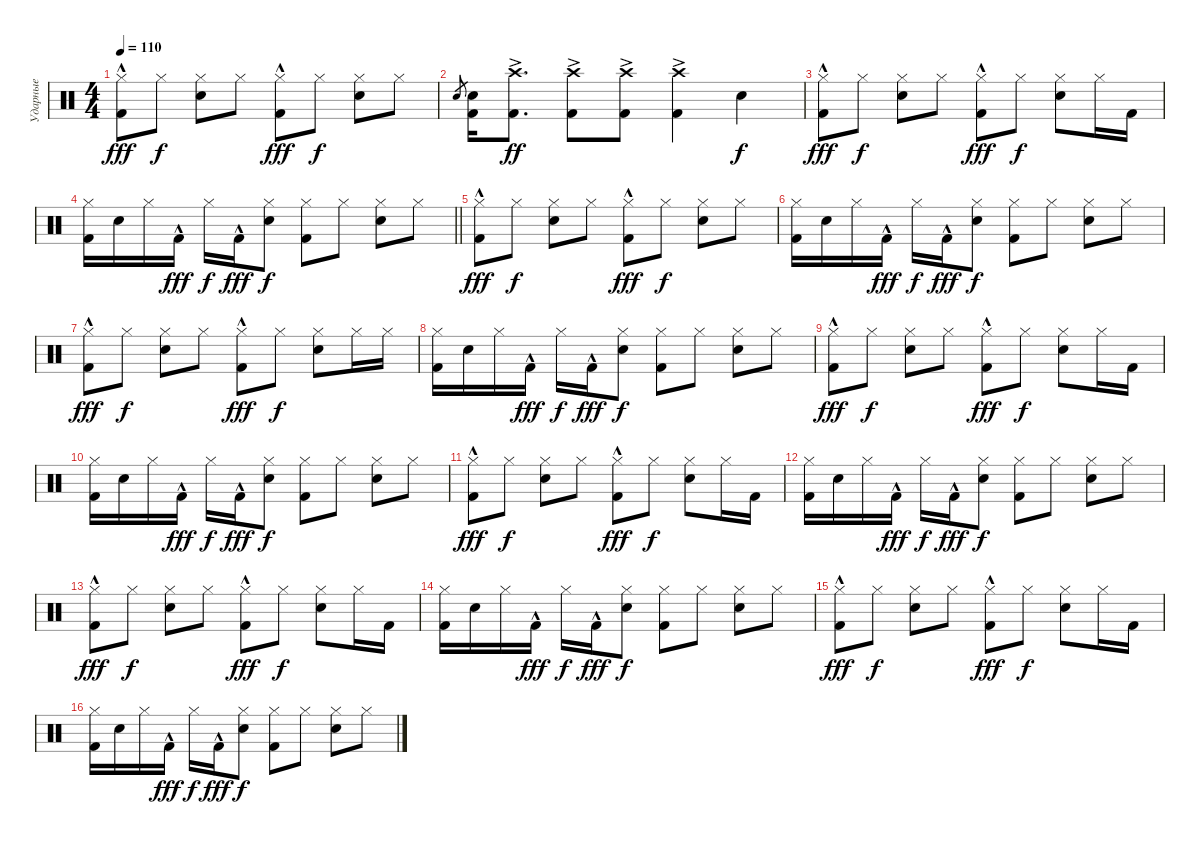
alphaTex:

\track ("Ударные" "Ударные") {instrument percussion}
\staff {score}
\articulation defaults
\ts (4 4)
\tempo 110
\clef neutral
\ks c
("Kick (hit) 2"{hac} "Hi-Hat (closed)").8{dy fff} "Hi-Hat (closed)".8{dy f} ("Snare (hit) 2" "Hi-Hat (closed)").8 "Hi-Hat (closed)".8 ("Kick (hit) 2"{hac} "Hi-Hat (closed)").8{dy fff} "Hi-Hat (closed)".8{dy f} ("Snare (hit) 2" "Hi-Hat (closed)").8 "Hi-Hat (closed)".8 |
"Snare (hit) 2".8{gr} ("Kick (hit) 2" "Snare (hit) 2").16 ("Kick (hit) 2" "Crash high (hit)"{ac}).8{d dy ff} ("Kick (hit) 2" "Crash high (hit)"{ac}).8 ("Kick (hit) 2" "Crash high (hit)"{ac}).8 ("Kick (hit) 2" "Crash high (hit)"{ac}).4 "Snare (hit) 2".4{dy f} |
("Kick (hit) 2"{hac} "Hi-Hat (closed)").8{dy fff} "Hi-Hat (closed)".8{dy f} ("Snare (hit) 2" "Hi-Hat (closed)").8 "Hi-Hat (closed)".8 ("Kick (hit) 2"{hac} "Hi-Hat (closed)").8{dy fff} "Hi-Hat (closed)".8{dy f} ("Snare (hit) 2" "Hi-Hat (closed)").8 "Hi-Hat (closed)".16 "Kick (hit) 2".16 |
\barLineRight lightlight
("Kick (hit) 2" "Hi-Hat (closed)").16 "Snare (hit) 2".16 "Hi-Hat (closed)".16 "Kick (hit) 2"{hac}.16{dy fff} "Hi-Hat (closed)".16{dy f} "Kick (hit) 2"{hac}.16{dy fff} ("Snare (hit) 2" "Hi-Hat (closed)").8{dy f} ("Kick (hit) 2" "Hi-Hat (closed)").8 "Hi-Hat (closed)".8 ("Snare (hit) 2" "Hi-Hat (closed)").8 "Hi-Hat (closed)".8 |
("Kick (hit) 2"{hac} "Hi-Hat (closed)").8{dy fff} "Hi-Hat (closed)".8{dy f} ("Snare (hit) 2" "Hi-Hat (closed)").8 "Hi-Hat (closed)".8 ("Kick (hit) 2"{hac} "Hi-Hat (closed)").8{dy fff} "Hi-Hat (closed)".8{dy f} ("Snare (hit) 2" "Hi-Hat (closed)").8 "Hi-Hat (closed)".8 |
("Kick (hit) 2" "Hi-Hat (closed)").16 "Snare (hit) 2".16 "Hi-Hat (closed)".16 "Kick (hit) 2"{hac}.16{dy fff} "Hi-Hat (closed)".16{dy f} "Kick (hit) 2"{hac}.16{dy fff} ("Snare (hit) 2" "Hi-Hat (closed)").8{dy f} ("Kick (hit) 2" "Hi-Hat (closed)").8 "Hi-Hat (closed)".8 ("Snare (hit) 2" "Hi-Hat (closed)").8 "Hi-Hat (closed)".8 |
("Kick (hit) 2"{hac} "Hi-Hat (closed)").8{dy fff} "Hi-Hat (closed)".8{dy f} ("Snare (hit) 2" "Hi-Hat (closed)").8 "Hi-Hat (closed)".8 ("Kick (hit) 2"{hac} "Hi-Hat (closed)").8{dy fff} "Hi-Hat (closed)".8{dy f} ("Snare (hit) 2" "Hi-Hat (closed)").8 "Hi-Hat (closed)".16 "Hi-Hat (closed)".16 |
("Kick (hit) 2" "Hi-Hat (closed)").16 "Snare (hit) 2".16 "Hi-Hat (closed)".16 "Kick (hit) 2"{hac}.16{dy fff} "Hi-Hat (closed)".16{dy f} "Kick (hit) 2"{hac}.16{dy fff} ("Snare (hit) 2" "Hi-Hat (closed)").8{dy f} ("Kick (hit) 2" "Hi-Hat (closed)").8 "Hi-Hat (closed)".8 ("Snare (hit) 2" "Hi-Hat (closed)").8 "Hi-Hat (closed)".8 |
("Kick (hit) 2"{hac} "Hi-Hat (closed)").8{dy fff} "Hi-Hat (closed)".8{dy f} ("Snare (hit) 2" "Hi-Hat (closed)").8 "Hi-Hat (closed)".8 ("Kick (hit) 2"{hac} "Hi-Hat (closed)").8{dy fff} "Hi-Hat (closed)".8{dy f} ("Snare (hit) 2" "Hi-Hat (closed)").8 "Hi-Hat (closed)".16 "Kick (hit) 2".16 |
("Kick (hit) 2" "Hi-Hat (closed)").16 "Snare (hit) 2".16 "Hi-Hat (closed)".16 "Kick (hit) 2"{hac}.16{dy fff} "Hi-Hat (closed)".16{dy f} "Kick (hit) 2"{hac}.16{dy fff} ("Snare (hit) 2" "Hi-Hat (closed)").8{dy f} ("Kick (hit) 2" "Hi-Hat (closed)").8 "Hi-Hat (closed)".8 ("Snare (hit) 2" "Hi-Hat (closed)").8 "Hi-Hat (closed)".8 |
("Kick (hit) 2"{hac} "Hi-Hat (closed)").8{dy fff} "Hi-Hat (closed)".8{dy f} ("Snare (hit) 2" "Hi-Hat (closed)").8 "Hi-Hat (closed)".8 ("Kick (hit) 2"{hac} "Hi-Hat (closed)").8{dy fff} "Hi-Hat (closed)".8{dy f} ("Snare (hit) 2" "Hi-Hat (closed)").8 "Hi-Hat (closed)".16 "Kick (hit) 2".16 |
("Kick (hit) 2" "Hi-Hat (closed)").16 "Snare (hit) 2".16 "Hi-Hat (closed)".16 "Kick (hit) 2"{hac}.16{dy fff} "Hi-Hat (closed)".16{dy f} "Kick (hit) 2"{hac}.16{dy fff} ("Snare (hit) 2" "Hi-Hat (closed)").8{dy f} ("Kick (hit) 2" "Hi-Hat (closed)").8 "Hi-Hat (closed)".8 ("Snare (hit) 2" "Hi-Hat (closed)").8 "Hi-Hat (closed)".8 |
("Kick (hit) 2"{hac} "Hi-Hat (closed)").8{dy fff} "Hi-Hat (closed)".8{dy f} ("Snare (hit) 2" "Hi-Hat (closed)").8 "Hi-Hat (closed)".8 ("Kick (hit) 2"{hac} "Hi-Hat (closed)").8{dy fff} "Hi-Hat (closed)".8{dy f} ("Snare (hit) 2" "Hi-Hat (closed)").8 "Hi-Hat (closed)".16 "Kick (hit) 2".16 |
("Kick (hit) 2" "Hi-Hat (closed)").16 "Snare (hit) 2".16 "Hi-Hat (closed)".16 "Kick (hit) 2"{hac}.16{dy fff} "Hi-Hat (closed)".16{dy f} "Kick (hit) 2"{hac}.16{dy fff} ("Snare (hit) 2" "Hi-Hat (closed)").8{dy f} ("Kick (hit) 2" "Hi-Hat (closed)").8 "Hi-Hat (closed)".8 ("Snare (hit) 2" "Hi-Hat (closed)").8 "Hi-Hat (closed)".8 |
("Kick (hit) 2"{hac} "Hi-Hat (closed)").8{dy fff} "Hi-Hat (closed)".8{dy f} ("Snare (hit) 2" "Hi-Hat (closed)").8 "Hi-Hat (closed)".8 ("Kick (hit) 2"{hac} "Hi-Hat (closed)").8{dy fff} "Hi-Hat (closed)".8{dy f} ("Snare (hit) 2" "Hi-Hat (closed)").8 "Hi-Hat (closed)".16 "Kick (hit) 2".16 |
("Kick (hit) 2" "Hi-Hat (closed)").16 "Snare (hit) 2".16 "Hi-Hat (closed)".16 "Kick (hit) 2"{hac}.16{dy fff} "Hi-Hat (closed)".16{dy f} "Kick (hit) 2"{hac}.16{dy fff} ("Snare (hit) 2" "Hi-Hat (closed)").8{dy f} ("Kick (hit) 2" "Hi-Hat (closed)").8 "Hi-Hat (closed)".8 ("Snare (hit) 2" "Hi-Hat (closed)").8 "Hi-Hat (closed)".8
